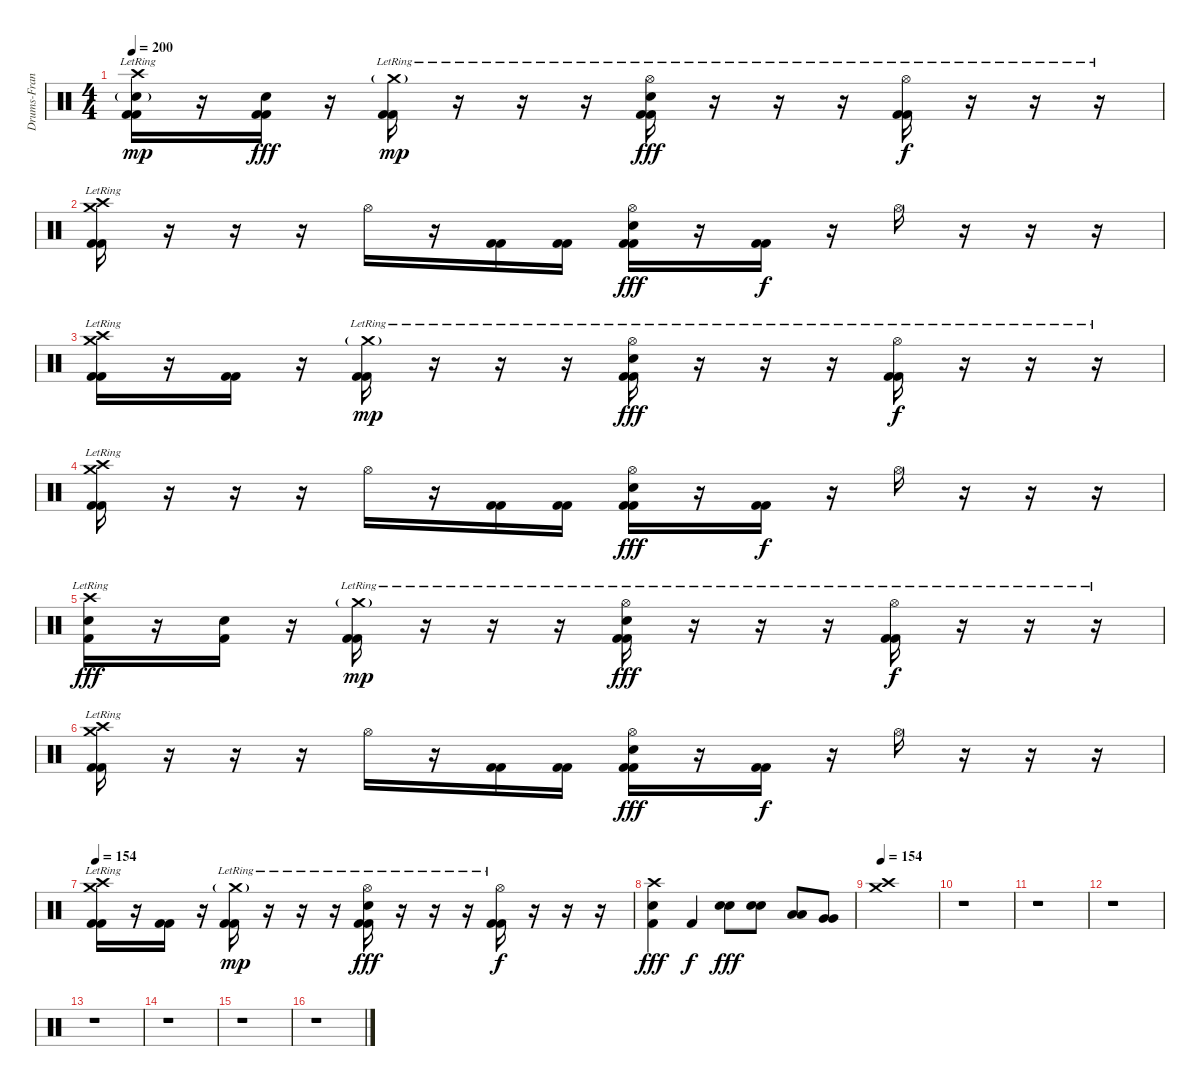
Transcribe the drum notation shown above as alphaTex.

\track ("Drums-Francis Mark" "Drums-Fran") {instrument percussion}
\staff {score}
\articulation defaults
\ts (4 4)
\tempo 200
\clef neutral
\ks c
("Crash high (hit)"{lr} "Electric Snare (hit)"{g} "Kick (hit) 2" "Kick (hit) 2").16{dy mp} r.16 ("Electric Snare (hit)" "Kick (hit) 2" "Kick (hit) 2").16{dy fff} r.16 ("Crash medium (hit)"{g lr} "Kick (hit) 2" "Kick (hit) 2").16{dy mp} r.16 r.16 r.16 ("Hi-Hat (open)"{lr} "Electric Snare (hit)" "Kick (hit) 2" "Kick (hit) 2").16{dy fff} r.16 r.16 r.16 ("Hi-Hat (open)"{lr} "Kick (hit) 2" "Kick (hit) 2").16{dy f} r.16 r.16 r.16 |
("Crash high (hit)"{lr} "Crash medium (hit)"{lr} "Kick (hit) 2" "Kick (hit) 2").16 r.16 r.16 r.16 "Hi-Hat (open)".16 r.16 ("Kick (hit) 2" "Kick (hit) 2").16 ("Kick (hit) 2" "Kick (hit) 2").16 ("Hi-Hat (open)" "Electric Snare (hit)" "Kick (hit) 2" "Kick (hit) 2").16{dy fff} r.16 ("Kick (hit) 2" "Kick (hit) 2").16{dy f} r.16 "Hi-Hat (open)".16 r.16 r.16 r.16 |
("Crash high (hit)"{lr} "Crash medium (hit)"{lr} "Kick (hit) 2" "Kick (hit) 2").16 r.16 ("Kick (hit) 2" "Kick (hit) 2").16 r.16 ("Crash medium (hit)"{g lr} "Kick (hit) 2" "Kick (hit) 2").16{dy mp} r.16 r.16 r.16 ("Hi-Hat (open)"{lr} "Electric Snare (hit)" "Kick (hit) 2" "Kick (hit) 2").16{dy fff} r.16 r.16 r.16 ("Hi-Hat (open)"{lr} "Kick (hit) 2" "Kick (hit) 2").16{dy f} r.16 r.16 r.16 |
("Crash high (hit)"{lr} "Crash medium (hit)"{lr} "Kick (hit) 2" "Kick (hit) 2").16 r.16 r.16 r.16 "Hi-Hat (open)".16 r.16 ("Kick (hit) 2" "Kick (hit) 2").16 ("Kick (hit) 2" "Kick (hit) 2").16 ("Hi-Hat (open)" "Electric Snare (hit)" "Kick (hit) 2" "Kick (hit) 2").16{dy fff} r.16 ("Kick (hit) 2" "Kick (hit) 2").16{dy f} r.16 "Hi-Hat (open)".16 r.16 r.16 r.16 |
("Crash high (hit)"{lr} "Electric Snare (hit)" "Kick (hit) 2").16{dy fff} r.16 ("Electric Snare (hit)" "Kick (hit) 2").16 r.16 ("Crash medium (hit)"{g lr} "Kick (hit) 2" "Kick (hit) 2").16{dy mp} r.16 r.16 r.16 ("Hi-Hat (open)"{lr} "Electric Snare (hit)" "Kick (hit) 2" "Kick (hit) 2").16{dy fff} r.16 r.16 r.16 ("Hi-Hat (open)"{lr} "Kick (hit) 2" "Kick (hit) 2").16{dy f} r.16 r.16 r.16 |
("Crash high (hit)"{lr} "Crash medium (hit)"{lr} "Kick (hit) 2" "Kick (hit) 2").16 r.16 r.16 r.16 "Hi-Hat (open)".16 r.16 ("Kick (hit) 2" "Kick (hit) 2").16 ("Kick (hit) 2" "Kick (hit) 2").16 ("Hi-Hat (open)" "Electric Snare (hit)" "Kick (hit) 2" "Kick (hit) 2").16{dy fff} r.16 ("Kick (hit) 2" "Kick (hit) 2").16{dy f} r.16 "Hi-Hat (open)".16 r.16 r.16 r.16 |
\tempo 154
("Crash high (hit)"{lr} "Crash medium (hit)"{lr} "Kick (hit) 2" "Kick (hit) 2").16 r.16 ("Kick (hit) 2" "Kick (hit) 2").16 r.16 ("Crash medium (hit)"{g lr} "Kick (hit) 2" "Kick (hit) 2").16{dy mp} r.16 r.16 r.16 ("Hi-Hat (open)"{lr} "Electric Snare (hit)" "Kick (hit) 2" "Kick (hit) 2").16{dy fff} r.16 r.16 r.16 ("Hi-Hat (open)"{lr} "Kick (hit) 2" "Kick (hit) 2").16{dy f} r.16 r.16 r.16 |
("Crash high (hit)" "Electric Snare (hit)" "Kick (hit) 2").4{dy fff} "Kick (hit) 2".4{dy f} ("Electric Snare (hit)" "Electric Snare (hit)").8{dy fff} ("Electric Snare (hit)" "Electric Snare (hit)").8 ("Low Tom (hit)" "Low Tom (hit)").8 ("Very Low Tom (hit)" "Very Low Tom (hit)").8 |
\tempo 154
("Crash high (hit)" "Crash medium (hit)").1 |
r.1 |
r.1 |
r.1 |
r.1 |
r.1 |
r.1 |
r.1
